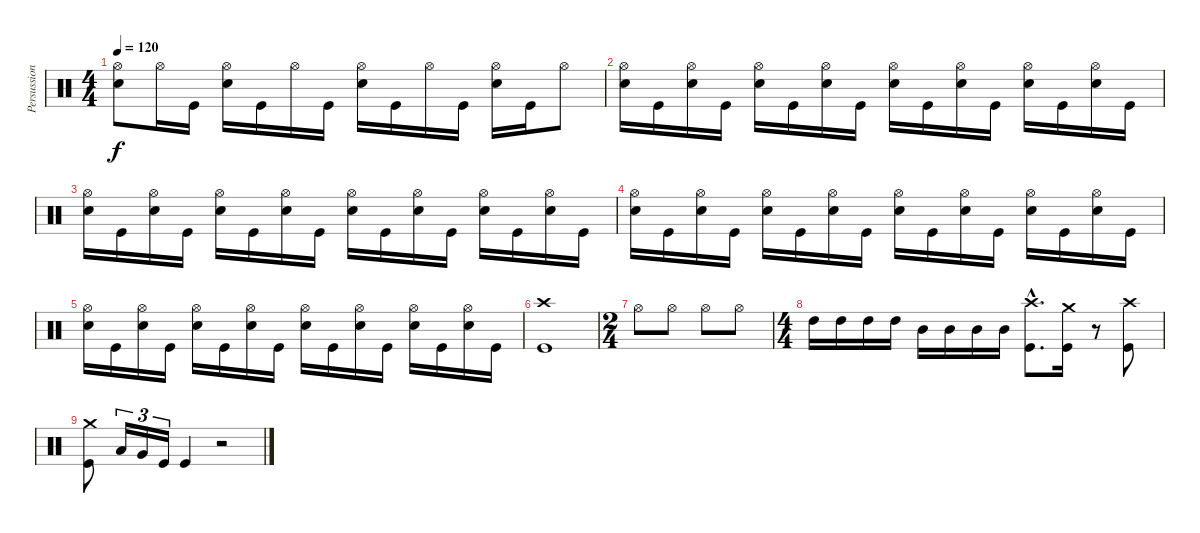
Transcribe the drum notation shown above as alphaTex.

\track ("Persussion" "Persussion") {instrument percussion}
\staff {score}
\articulation defaults
\ts (4 4)
\tempo 120
\clef neutral
\ks c
("Hi-Hat (open)" "Snare (hit) 2").8{dy f} "Hi-Hat (open)".16 "Kick (hit)".16 ("Hi-Hat (open)" "Snare (hit) 2").16 "Kick (hit)".16 "Hi-Hat (open)".16 "Kick (hit)".16 ("Hi-Hat (open)" "Snare (hit) 2").16 "Kick (hit)".16 "Hi-Hat (open)".16 "Kick (hit)".16 ("Hi-Hat (open)" "Snare (hit) 2").16 "Kick (hit)".16 "Hi-Hat (open)".8 |
("Hi-Hat (open)" "Snare (hit) 2").16 "Kick (hit)".16 ("Hi-Hat (open)" "Snare (hit) 2").16 "Kick (hit)".16 ("Hi-Hat (open)" "Snare (hit) 2").16 "Kick (hit)".16 ("Hi-Hat (open)" "Snare (hit) 2").16 "Kick (hit)".16 ("Hi-Hat (open)" "Snare (hit) 2").16 "Kick (hit)".16 ("Hi-Hat (open)" "Snare (hit) 2").16 "Kick (hit)".16 ("Hi-Hat (open)" "Snare (hit) 2").16 "Kick (hit)".16 ("Hi-Hat (open)" "Snare (hit) 2").16 "Kick (hit)".16 |
("Hi-Hat (open)" "Snare (hit) 2").16 "Kick (hit)".16 ("Hi-Hat (open)" "Snare (hit) 2").16 "Kick (hit)".16 ("Hi-Hat (open)" "Snare (hit) 2").16 "Kick (hit)".16 ("Hi-Hat (open)" "Snare (hit) 2").16 "Kick (hit)".16 ("Hi-Hat (open)" "Snare (hit) 2").16 "Kick (hit)".16 ("Hi-Hat (open)" "Snare (hit) 2").16 "Kick (hit)".16 ("Hi-Hat (open)" "Snare (hit) 2").16 "Kick (hit)".16 ("Hi-Hat (open)" "Snare (hit) 2").16 "Kick (hit)".16 |
("Hi-Hat (open)" "Snare (hit) 2").16 "Kick (hit)".16 ("Hi-Hat (open)" "Snare (hit) 2").16 "Kick (hit)".16 ("Hi-Hat (open)" "Snare (hit) 2").16 "Kick (hit)".16 ("Hi-Hat (open)" "Snare (hit) 2").16 "Kick (hit)".16 ("Hi-Hat (open)" "Snare (hit) 2").16 "Kick (hit)".16 ("Hi-Hat (open)" "Snare (hit) 2").16 "Kick (hit)".16 ("Hi-Hat (open)" "Snare (hit) 2").16 "Kick (hit)".16 ("Hi-Hat (open)" "Snare (hit) 2").16 "Kick (hit)".16 |
("Hi-Hat (open)" "Snare (hit) 2").16 "Kick (hit)".16 ("Hi-Hat (open)" "Snare (hit) 2").16 "Kick (hit)".16 ("Hi-Hat (open)" "Snare (hit) 2").16 "Kick (hit)".16 ("Hi-Hat (open)" "Snare (hit) 2").16 "Kick (hit)".16 ("Hi-Hat (open)" "Snare (hit) 2").16 "Kick (hit)".16 ("Hi-Hat (open)" "Snare (hit) 2").16 "Kick (hit)".16 ("Hi-Hat (open)" "Snare (hit) 2").16 "Kick (hit)".16 ("Hi-Hat (open)" "Snare (hit) 2").16 "Kick (hit)".16 |
("Crash high (hit)" "Kick (hit)").1 |
\ts (2 4)
"Hi-Hat (open)".8 "Hi-Hat (open)".8 "Hi-Hat (open)".8 "Hi-Hat (open)".8 |
\ts (4 4)
"High Tom (hit)".16 "High Tom (hit)".16 "High Tom (hit)".16 "High Tom (hit)".16 "Mid Tom (hit)".16 "Mid Tom (hit)".16 "Mid Tom (hit)".16 "Mid Tom (hit)".16 ("Crash high (hit)"{hac} "Kick (hit)"{hac}).8{d} ("Crash medium (hit)" "Kick (hit)").16 r.8 ("Crash high (hit)" "Kick (hit)").8 |
("Crash medium (hit)" "Kick (hit)").8 "Low Floor Tom (hit)".16{tu (3 2)} "Very Low Tom (hit)".16{tu (3 2)} "Kick (hit)".16{tu (3 2)} "Kick (hit)".4 r.2
